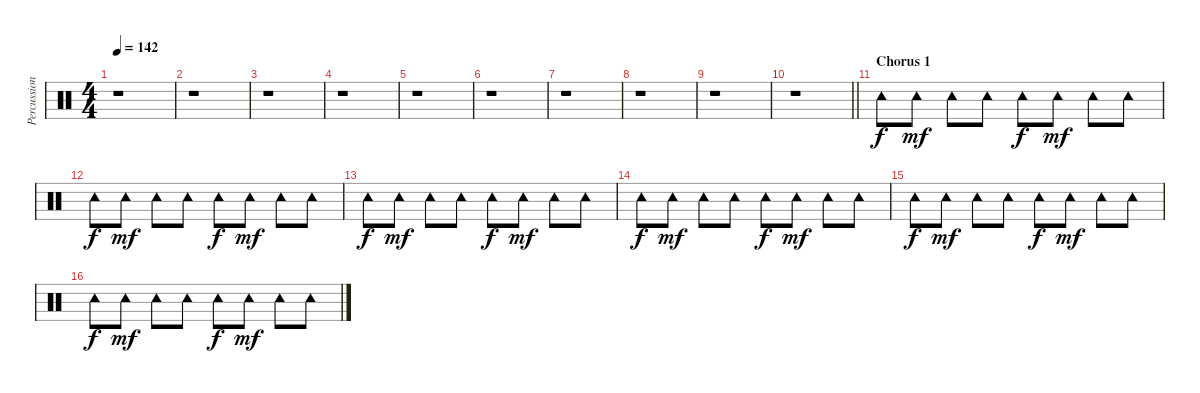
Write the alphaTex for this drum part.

\track ("Percussion" "Percussion") {instrument percussion}
\staff {score}
\articulation defaults
\ts (4 4)
\tempo 142
\clef neutral
\ks c
r.1{dy mp} |
r.1 |
r.1 |
r.1 |
r.1 |
r.1 |
r.1 |
r.1 |
r.1 |
\barLineRight lightlight
r.1 |
\section ("" "Chorus 1")
"Tambourine (hit)".8{dy f} "Tambourine (hit)".8{dy mf} "Tambourine (hit)".8 "Tambourine (hit)".8 "Tambourine (hit)".8{dy f} "Tambourine (hit)".8{dy mf} "Tambourine (hit)".8 "Tambourine (hit)".8 |
"Tambourine (hit)".8{dy f} "Tambourine (hit)".8{dy mf} "Tambourine (hit)".8 "Tambourine (hit)".8 "Tambourine (hit)".8{dy f} "Tambourine (hit)".8{dy mf} "Tambourine (hit)".8 "Tambourine (hit)".8 |
"Tambourine (hit)".8{dy f} "Tambourine (hit)".8{dy mf} "Tambourine (hit)".8 "Tambourine (hit)".8 "Tambourine (hit)".8{dy f} "Tambourine (hit)".8{dy mf} "Tambourine (hit)".8 "Tambourine (hit)".8 |
"Tambourine (hit)".8{dy f} "Tambourine (hit)".8{dy mf} "Tambourine (hit)".8 "Tambourine (hit)".8 "Tambourine (hit)".8{dy f} "Tambourine (hit)".8{dy mf} "Tambourine (hit)".8 "Tambourine (hit)".8 |
"Tambourine (hit)".8{dy f} "Tambourine (hit)".8{dy mf} "Tambourine (hit)".8 "Tambourine (hit)".8 "Tambourine (hit)".8{dy f} "Tambourine (hit)".8{dy mf} "Tambourine (hit)".8 "Tambourine (hit)".8 |
"Tambourine (hit)".8{dy f} "Tambourine (hit)".8{dy mf} "Tambourine (hit)".8 "Tambourine (hit)".8 "Tambourine (hit)".8{dy f} "Tambourine (hit)".8{dy mf} "Tambourine (hit)".8 "Tambourine (hit)".8
